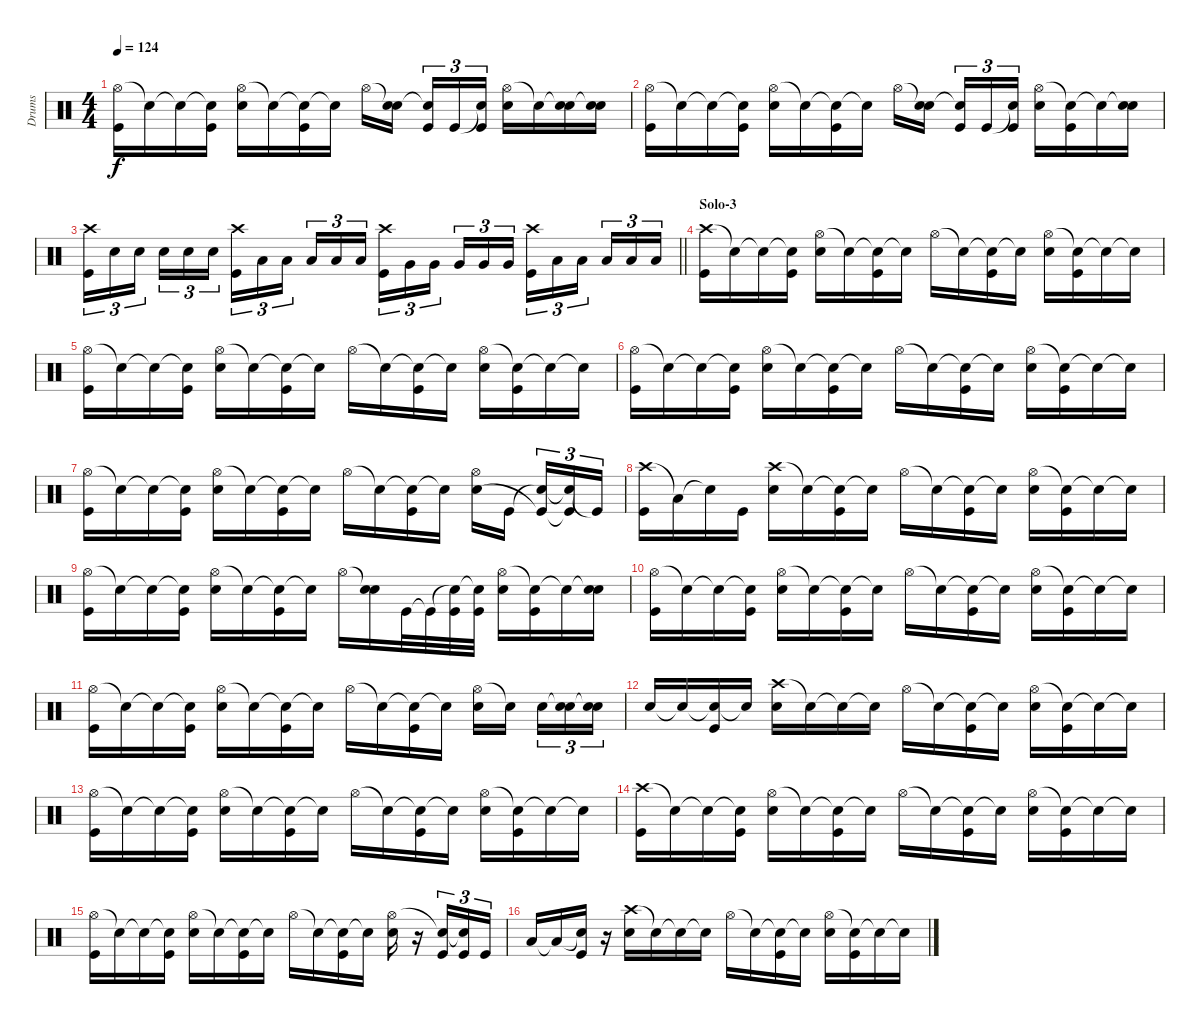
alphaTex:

\track ("Drums" "Drums") {instrument percussion}
\staff {score}
\articulation defaults
\ts (4 4)
\tempo 124
\clef neutral
\ks c
("Hi-Hat (open)" "Kick (hit)").16{dy f} "Snare (hit)"{t}.16 "Snare (hit)"{t}.16 ("Snare (hit)"{t} "Kick (hit)").16 ("Hi-Hat (open)" "Electric Snare (hit)").16 "Snare (hit)"{t}.16 ("Snare (hit)"{t} "Kick (hit)").16 "Snare (hit)"{t}.16 "Hi-Hat (open)".16 ("Snare (hit)"{t} "Electric Snare (hit)").16 ("Snare (hit)"{t} "Kick (hit)").16{tu (3 2)} "Kick (hit)".16{tu (3 2)} ("Snare (hit)"{t} "Kick (hit)").16{tu (3 2)} ("Hi-Hat (open)" "Electric Snare (hit)").16 "Snare (hit)"{t}.16 ("Snare (hit)"{t} "Electric Snare (hit)").16 ("Snare (hit)"{t} "Electric Snare (hit)").16 |
("Hi-Hat (open)" "Kick (hit)").16 "Snare (hit)"{t}.16 "Snare (hit)"{t}.16 ("Snare (hit)"{t} "Kick (hit)").16 ("Hi-Hat (open)" "Electric Snare (hit)").16 "Snare (hit)"{t}.16 ("Snare (hit)"{t} "Kick (hit)").16 "Snare (hit)"{t}.16 "Hi-Hat (open)".16 ("Snare (hit)"{t} "Electric Snare (hit)").16 ("Snare (hit)"{t} "Kick (hit)").16{tu (3 2)} "Kick (hit)".16{tu (3 2)} ("Snare (hit)"{t} "Kick (hit)").16{tu (3 2)} ("Hi-Hat (open)" "Electric Snare (hit)").16 ("Snare (hit)"{t} "Kick (hit)").16 "Snare (hit)"{t}.16 ("Snare (hit)"{t} "Electric Snare (hit)").16 |
\barLineRight lightlight
("Crash high (hit)" "Kick (hit)").16{tu (3 2)} "Electric Snare (hit)".16{tu (3 2)} "Electric Snare (hit)".16{tu (3 2)} "Electric Snare (hit)".16{tu (3 2)} "Electric Snare (hit)".16{tu (3 2)} "Electric Snare (hit)".16{tu (3 2)} ("Crash high (hit)" "Kick (hit)").16{tu (3 2)} "Low Tom (hit)".16{tu (3 2)} "Low Tom (hit)".16{tu (3 2)} "Low Tom (hit)".16{tu (3 2)} "Low Tom (hit)".16{tu (3 2)} "Low Tom (hit)".16{tu (3 2)} ("Crash high (hit)" "Kick (hit)").16{tu (3 2)} "Very Low Tom (hit)".16{tu (3 2)} "Very Low Tom (hit)".16{tu (3 2)} "Very Low Tom (hit)".16{tu (3 2)} "Very Low Tom (hit)".16{tu (3 2)} "Very Low Tom (hit)".16{tu (3 2)} ("Crash high (hit)" "Kick (hit)").16{tu (3 2)} "Low Floor Tom (hit)".16{tu (3 2)} "Low Floor Tom (hit)".16{tu (3 2)} "Low Floor Tom (hit)".16{tu (3 2)} "Low Floor Tom (hit)".16{tu (3 2)} "Low Floor Tom (hit)".16{tu (3 2)} |
\section ("" "Solo-3")
("Crash high (hit)" "Kick (hit)").16 "Snare (hit)"{t}.16 "Snare (hit)"{t}.16 ("Snare (hit)"{t} "Kick (hit)").16 ("Hi-Hat (open)" "Electric Snare (hit)").16 "Snare (hit)"{t}.16 ("Snare (hit)"{t} "Kick (hit)").16 "Snare (hit)"{t}.16 "Hi-Hat (open)".16 "Snare (hit)"{t}.16 ("Snare (hit)"{t} "Kick (hit)").16 "Snare (hit)"{t}.16 ("Hi-Hat (open)" "Electric Snare (hit)").16 ("Snare (hit)"{t} "Kick (hit)").16 "Snare (hit)"{t}.16 "Snare (hit)"{t}.16 |
("Hi-Hat (open)" "Kick (hit)").16 "Snare (hit)"{t}.16 "Snare (hit)"{t}.16 ("Snare (hit)"{t} "Kick (hit)").16 ("Hi-Hat (open)" "Electric Snare (hit)").16 "Snare (hit)"{t}.16 ("Snare (hit)"{t} "Kick (hit)").16 "Snare (hit)"{t}.16 "Hi-Hat (open)".16 "Snare (hit)"{t}.16 ("Snare (hit)"{t} "Kick (hit)").16 "Snare (hit)"{t}.16 ("Hi-Hat (open)" "Electric Snare (hit)").16 ("Snare (hit)"{t} "Kick (hit)").16 "Snare (hit)"{t}.16 "Snare (hit)"{t}.16 |
("Hi-Hat (open)" "Kick (hit)").16 "Snare (hit)"{t}.16 "Snare (hit)"{t}.16 ("Snare (hit)"{t} "Kick (hit)").16 ("Hi-Hat (open)" "Electric Snare (hit)").16 "Snare (hit)"{t}.16 ("Snare (hit)"{t} "Kick (hit)").16 "Snare (hit)"{t}.16 "Hi-Hat (open)".16 "Snare (hit)"{t}.16 ("Snare (hit)"{t} "Kick (hit)").16 "Snare (hit)"{t}.16 ("Hi-Hat (open)" "Electric Snare (hit)").16 ("Snare (hit)"{t} "Kick (hit)").16 "Snare (hit)"{t}.16 "Snare (hit)"{t}.16 |
("Hi-Hat (open)" "Kick (hit)").16 "Snare (hit)"{t}.16 "Snare (hit)"{t}.16 ("Snare (hit)"{t} "Kick (hit)").16 ("Hi-Hat (open)" "Electric Snare (hit)").16 "Snare (hit)"{t}.16 ("Snare (hit)"{t} "Kick (hit)").16 "Snare (hit)"{t}.16 "Hi-Hat (open)".16 "Snare (hit)"{t}.16 ("Snare (hit)"{t} "Kick (hit)").16 "Snare (hit)"{t}.16 ("Hi-Hat (open)" "Electric Snare (hit)").16 "Kick (hit)".16 ("Snare (hit)"{t} "Kick (hit)"{t}).16{tu (3 2)} ("Snare (hit)"{t} "Kick (hit)"{t}).16{tu (3 2)} "Kick (hit)"{t}.16{tu (3 2)} |
("Crash high (hit)" "Kick (hit)").16 "Low Floor Tom (hit)"{t}.16 "Snare (hit)"{t}.16 "Kick (hit)".16 ("Crash high (hit)" "Electric Snare (hit)").16 "Snare (hit)"{t}.16 ("Snare (hit)"{t} "Kick (hit)").16 "Snare (hit)"{t}.16 "Hi-Hat (open)".16 "Snare (hit)"{t}.16 ("Snare (hit)"{t} "Kick (hit)").16 "Snare (hit)"{t}.16 ("Hi-Hat (open)" "Electric Snare (hit)").16 ("Snare (hit)"{t} "Kick (hit)").16 "Snare (hit)"{t}.16 "Snare (hit)"{t}.16 |
("Hi-Hat (open)" "Kick (hit)").16 "Snare (hit)"{t}.16 "Snare (hit)"{t}.16 ("Snare (hit)"{t} "Kick (hit)").16 ("Hi-Hat (open)" "Electric Snare (hit)").16 "Snare (hit)"{t}.16 ("Snare (hit)"{t} "Kick (hit)").16 "Snare (hit)"{t}.16 "Hi-Hat (open)".16 ("Snare (hit)"{t} "Electric Snare (hit)").16 "Kick (hit)".32 "Kick (hit)"{t}.32 ("Snare (hit)"{t} "Kick (hit)").32 ("Snare (hit)"{t} "Kick (hit)").32 ("Hi-Hat (open)" "Electric Snare (hit)").16 ("Snare (hit)"{t} "Kick (hit)").16 "Snare (hit)"{t}.16 ("Snare (hit)"{t} "Electric Snare (hit)").16 |
("Hi-Hat (open)" "Kick (hit)").16 "Snare (hit)"{t}.16 "Snare (hit)"{t}.16 ("Snare (hit)"{t} "Kick (hit)").16 ("Hi-Hat (open)" "Electric Snare (hit)").16 "Snare (hit)"{t}.16 ("Snare (hit)"{t} "Kick (hit)").16 "Snare (hit)"{t}.16 "Hi-Hat (open)".16 "Snare (hit)"{t}.16 ("Snare (hit)"{t} "Kick (hit)").16 "Snare (hit)"{t}.16 ("Hi-Hat (open)" "Electric Snare (hit)").16 ("Snare (hit)"{t} "Kick (hit)").16 "Snare (hit)"{t}.16 "Snare (hit)"{t}.16 |
("Hi-Hat (open)" "Kick (hit)").16 "Snare (hit)"{t}.16 "Snare (hit)"{t}.16 ("Snare (hit)"{t} "Kick (hit)").16 ("Hi-Hat (open)" "Electric Snare (hit)").16 "Snare (hit)"{t}.16 ("Snare (hit)"{t} "Kick (hit)").16 "Snare (hit)"{t}.16 "Hi-Hat (open)".16 "Snare (hit)"{t}.16 ("Snare (hit)"{t} "Kick (hit)").16 "Snare (hit)"{t}.16 ("Hi-Hat (open)" "Electric Snare (hit)").16 "Snare (hit)"{t}.16 "Electric Snare (hit)".16{tu (3 2)} ("Snare (hit)"{t} "Electric Snare (hit)").16{tu (3 2)} ("Snare (hit)"{t} "Electric Snare (hit)").16{tu (3 2)} |
"Electric Snare (hit)".16 "Snare (hit)"{t}.16 ("Snare (hit)"{t} "Kick (hit)").16 "Snare (hit)"{t}.16 ("Crash high (hit)" "Electric Snare (hit)").16 "Snare (hit)"{t}.16 "Snare (hit)"{t}.16 "Snare (hit)"{t}.16 "Hi-Hat (open)".16 "Snare (hit)"{t}.16 ("Snare (hit)"{t} "Kick (hit)").16 "Snare (hit)"{t}.16 ("Hi-Hat (open)" "Electric Snare (hit)").16 ("Snare (hit)"{t} "Kick (hit)").16 "Snare (hit)"{t}.16 "Snare (hit)"{t}.16 |
("Hi-Hat (open)" "Kick (hit)").16 "Snare (hit)"{t}.16 "Snare (hit)"{t}.16 ("Snare (hit)"{t} "Kick (hit)").16 ("Hi-Hat (open)" "Electric Snare (hit)").16 "Snare (hit)"{t}.16 ("Snare (hit)"{t} "Kick (hit)").16 "Snare (hit)"{t}.16 "Hi-Hat (open)".16 "Snare (hit)"{t}.16 ("Snare (hit)"{t} "Kick (hit)").16 "Snare (hit)"{t}.16 ("Hi-Hat (open)" "Electric Snare (hit)").16 ("Snare (hit)"{t} "Kick (hit)").16 "Snare (hit)"{t}.16 "Snare (hit)"{t}.16 |
("Crash high (hit)" "Kick (hit)").16 "Snare (hit)"{t}.16 "Snare (hit)"{t}.16 ("Snare (hit)"{t} "Kick (hit)").16 ("Hi-Hat (open)" "Electric Snare (hit)").16 "Snare (hit)"{t}.16 ("Snare (hit)"{t} "Kick (hit)").16 "Snare (hit)"{t}.16 "Hi-Hat (open)".16 "Snare (hit)"{t}.16 ("Snare (hit)"{t} "Kick (hit)").16 "Snare (hit)"{t}.16 ("Hi-Hat (open)" "Electric Snare (hit)").16 ("Snare (hit)"{t} "Kick (hit)").16 "Snare (hit)"{t}.16 "Snare (hit)"{t}.16 |
("Hi-Hat (open)" "Kick (hit)").16 "Snare (hit)"{t}.16 "Snare (hit)"{t}.16 ("Snare (hit)"{t} "Kick (hit)").16 ("Hi-Hat (open)" "Electric Snare (hit)").16 "Snare (hit)"{t}.16 ("Snare (hit)"{t} "Kick (hit)").16 "Snare (hit)"{t}.16 "Hi-Hat (open)".16 "Snare (hit)"{t}.16 ("Snare (hit)"{t} "Kick (hit)").16 "Snare (hit)"{t}.16 ("Hi-Hat (open)" "Electric Snare (hit)").16 r.16 ("Snare (hit)"{t} "Kick (hit)").16{tu (3 2)} ("Snare (hit)"{t} "Kick (hit)").16{tu (3 2)} "Kick (hit)".16{tu (3 2)} |
"Low Floor Tom (hit)".16 "Low Floor Tom (hit)"{t}.16 ("Snare (hit)"{t} "Kick (hit)").16 r.16 ("Crash high (hit)" "Electric Snare (hit)").16 "Snare (hit)"{t}.16 "Snare (hit)"{t}.16 "Snare (hit)"{t}.16 "Hi-Hat (open)".16 "Snare (hit)"{t}.16 ("Snare (hit)"{t} "Kick (hit)").16 "Snare (hit)"{t}.16 ("Hi-Hat (open)" "Electric Snare (hit)").16 ("Snare (hit)"{t} "Kick (hit)").16 "Snare (hit)"{t}.16 "Snare (hit)"{t}.16
